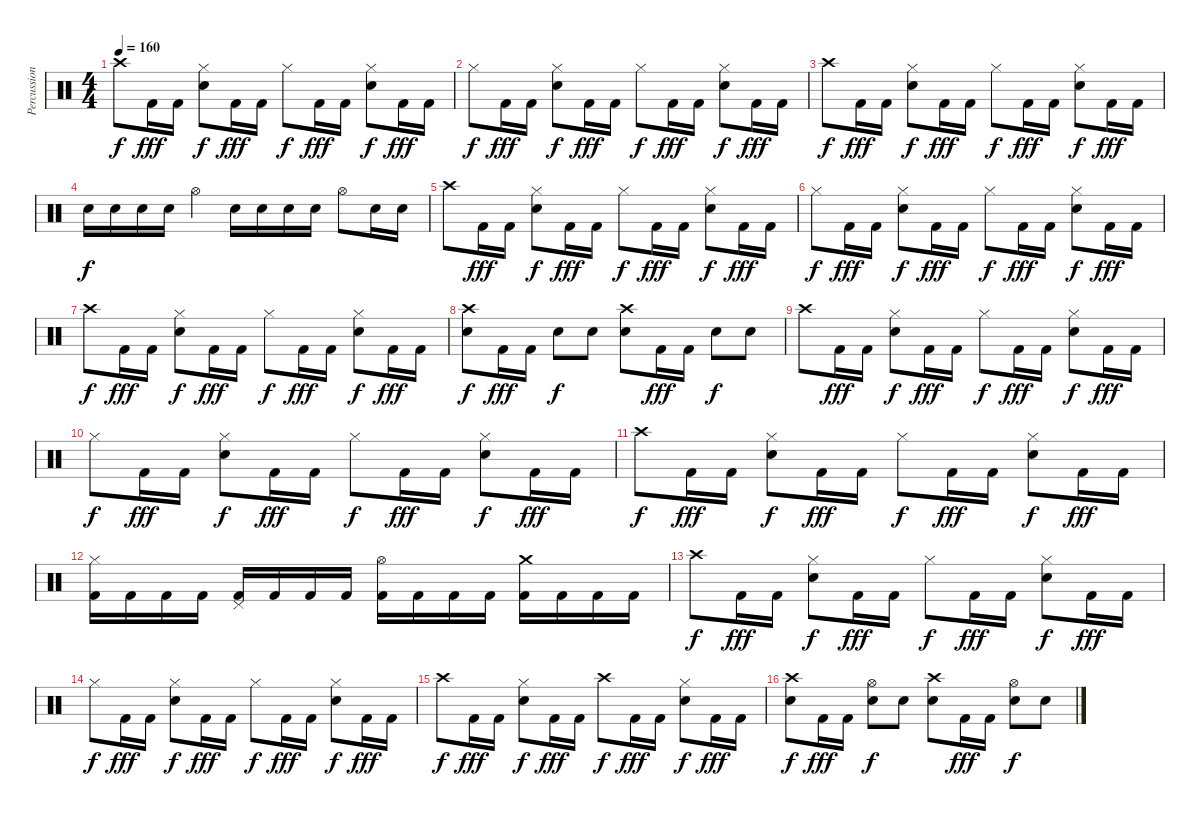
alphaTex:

\track ("Percussion" "Percussion") {instrument percussion}
\staff {score}
\articulation defaults
\ts (4 4)
\tempo 160
\clef neutral
\ks c "Crash high (hit)".8{dy f} "Kick (hit) 2".16{dy fff} "Kick (hit) 2".16
("Hi-Hat (closed)" "Electric Snare (hit)").8{dy f} "Kick (hit) 2".16{dy fff} "Kick (hit) 2".16 "Hi-Hat (closed)".8{dy f} "Kick (hit) 2".16{dy fff} "Kick (hit) 2".16 ("Hi-Hat (closed)" "Electric Snare (hit)").8{dy f} "Kick (hit) 2".16{dy fff} "Kick (hit) 2".16 |
"Hi-Hat (closed)".8{dy f} "Kick (hit) 2".16{dy fff} "Kick (hit) 2".16 ("Hi-Hat (closed)" "Electric Snare (hit)").8{dy f} "Kick (hit) 2".16{dy fff} "Kick (hit) 2".16 "Hi-Hat (closed)".8{dy f} "Kick (hit) 2".16{dy fff} "Kick (hit) 2".16 ("Hi-Hat (closed)" "Electric Snare (hit)").8{dy f} "Kick (hit) 2".16{dy fff} "Kick (hit) 2".16 |
"Crash high (hit)".8{dy f} "Kick (hit) 2".16{dy fff} "Kick (hit) 2".16 ("Hi-Hat (closed)" "Electric Snare (hit)").8{dy f} "Kick (hit) 2".16{dy fff} "Kick (hit) 2".16 "Hi-Hat (closed)".8{dy f} "Kick (hit) 2".16{dy fff} "Kick (hit) 2".16 ("Hi-Hat (closed)" "Electric Snare (hit)").8{dy f} "Kick (hit) 2".16{dy fff} "Kick (hit) 2".16 |
"Electric Snare (hit)".16{dy f} "Electric Snare (hit)".16 "Electric Snare (hit)".16 "Electric Snare (hit)".16 "Hi-Hat (open)".4 "Electric Snare (hit)".16 "Electric Snare (hit)".16 "Electric Snare (hit)".16 "Electric Snare (hit)".16 "Hi-Hat (open)".8 "Electric Snare (hit)".16 "Electric Snare (hit)".16 |
"Crash high (hit)".8 "Kick (hit) 2".16{dy fff} "Kick (hit) 2".16 ("Hi-Hat (closed)" "Electric Snare (hit)").8{dy f} "Kick (hit) 2".16{dy fff} "Kick (hit) 2".16 "Hi-Hat (closed)".8{dy f} "Kick (hit) 2".16{dy fff} "Kick (hit) 2".16 ("Hi-Hat (closed)" "Electric Snare (hit)").8{dy f} "Kick (hit) 2".16{dy fff} "Kick (hit) 2".16 |
"Hi-Hat (closed)".8{dy f} "Kick (hit) 2".16{dy fff} "Kick (hit) 2".16 ("Hi-Hat (closed)" "Electric Snare (hit)").8{dy f} "Kick (hit) 2".16{dy fff} "Kick (hit) 2".16 "Hi-Hat (closed)".8{dy f} "Kick (hit) 2".16{dy fff} "Kick (hit) 2".16 ("Hi-Hat (closed)" "Electric Snare (hit)").8{dy f} "Kick (hit) 2".16{dy fff} "Kick (hit) 2".16 |
"Crash high (hit)".8{dy f} "Kick (hit) 2".16{dy fff} "Kick (hit) 2".16 ("Hi-Hat (closed)" "Electric Snare (hit)").8{dy f} "Kick (hit) 2".16{dy fff} "Kick (hit) 2".16 "Hi-Hat (closed)".8{dy f} "Kick (hit) 2".16{dy fff} "Kick (hit) 2".16 ("Hi-Hat (closed)" "Electric Snare (hit)").8{dy f} "Kick (hit) 2".16{dy fff} "Kick (hit) 2".16 |
("Crash high (hit)" "Electric Snare (hit)").8{dy f} "Kick (hit) 2".16{dy fff} "Kick (hit) 2".16 "Electric Snare (hit)".8{dy f} "Electric Snare (hit)".8 ("Crash high (hit)" "Electric Snare (hit)").8 "Kick (hit) 2".16{dy fff} "Kick (hit) 2".16 "Electric Snare (hit)".8{dy f} "Electric Snare (hit)".8 |
"Crash high (hit)".8 "Kick (hit) 2".16{dy fff} "Kick (hit) 2".16 ("Hi-Hat (closed)" "Electric Snare (hit)").8{dy f} "Kick (hit) 2".16{dy fff} "Kick (hit) 2".16 "Hi-Hat (closed)".8{dy f} "Kick (hit) 2".16{dy fff} "Kick (hit) 2".16 ("Hi-Hat (closed)" "Electric Snare (hit)").8{dy f} "Kick (hit) 2".16{dy fff} "Kick (hit) 2".16 |
"Hi-Hat (closed)".8{dy f} "Kick (hit) 2".16{dy fff} "Kick (hit) 2".16 ("Hi-Hat (closed)" "Electric Snare (hit)").8{dy f} "Kick (hit) 2".16{dy fff} "Kick (hit) 2".16 "Hi-Hat (closed)".8{dy f} "Kick (hit) 2".16{dy fff} "Kick (hit) 2".16 ("Hi-Hat (closed)" "Electric Snare (hit)").8{dy f} "Kick (hit) 2".16{dy fff} "Kick (hit) 2".16 |
"Crash high (hit)".8{dy f} "Kick (hit) 2".16{dy fff} "Kick (hit) 2".16 ("Hi-Hat (closed)" "Electric Snare (hit)").8{dy f} "Kick (hit) 2".16{dy fff} "Kick (hit) 2".16 "Hi-Hat (closed)".8{dy f} "Kick (hit) 2".16{dy fff} "Kick (hit) 2".16 ("Hi-Hat (closed)" "Electric Snare (hit)").8{dy f} "Kick (hit) 2".16{dy fff} "Kick (hit) 2".16 |
("Hi-Hat (closed)" "Kick (hit) 2").16 "Kick (hit) 2".16 "Kick (hit) 2".16 "Kick (hit) 2".16 ("Pedal Hi-Hat (hit)" "Kick (hit) 2").16 "Kick (hit) 2".16 "Kick (hit) 2".16 "Kick (hit) 2".16 ("Hi-Hat (open)" "Kick (hit) 2").16 "Kick (hit) 2".16 "Kick (hit) 2".16 "Kick (hit) 2".16 ("Crash medium (hit)" "Kick (hit) 2").16 "Kick (hit) 2".16 "Kick (hit) 2".16 "Kick (hit) 2".16 |
"Crash high (hit)".8{dy f} "Kick (hit) 2".16{dy fff} "Kick (hit) 2".16 ("Hi-Hat (closed)" "Electric Snare (hit)").8{dy f} "Kick (hit) 2".16{dy fff} "Kick (hit) 2".16 "Hi-Hat (closed)".8{dy f} "Kick (hit) 2".16{dy fff} "Kick (hit) 2".16 ("Hi-Hat (closed)" "Electric Snare (hit)").8{dy f} "Kick (hit) 2".16{dy fff} "Kick (hit) 2".16 |
"Hi-Hat (closed)".8{dy f} "Kick (hit) 2".16{dy fff} "Kick (hit) 2".16 ("Hi-Hat (closed)" "Electric Snare (hit)").8{dy f} "Kick (hit) 2".16{dy fff} "Kick (hit) 2".16 "Hi-Hat (closed)".8{dy f} "Kick (hit) 2".16{dy fff} "Kick (hit) 2".16 ("Hi-Hat (closed)" "Electric Snare (hit)").8{dy f} "Kick (hit) 2".16{dy fff} "Kick (hit) 2".16 |
"Crash high (hit)".8{dy f} "Kick (hit) 2".16{dy fff} "Kick (hit) 2".16 ("Hi-Hat (closed)" "Electric Snare (hit)").8{dy f} "Kick (hit) 2".16{dy fff} "Kick (hit) 2".16 "Crash high (hit)".8{dy f} "Kick (hit) 2".16{dy fff} "Kick (hit) 2".16 ("Hi-Hat (closed)" "Electric Snare (hit)").8{dy f} "Kick (hit) 2".16{dy fff} "Kick (hit) 2".16 |
("Crash high (hit)" "Electric Snare (hit)").8{dy f} "Kick (hit) 2".16{dy fff} "Kick (hit) 2".16 ("Hi-Hat (open)" "Electric Snare (hit)").8{dy f} "Electric Snare (hit)".8 ("Crash high (hit)" "Electric Snare (hit)").8 "Kick (hit) 2".16{dy fff} "Kick (hit) 2".16 ("Hi-Hat (open)" "Electric Snare (hit)").8{dy f} "Electric Snare (hit)".8
